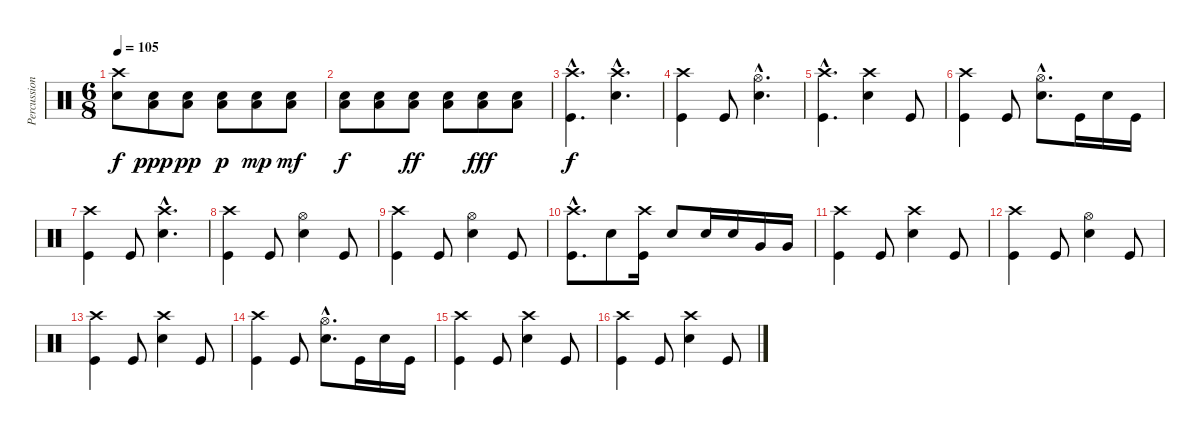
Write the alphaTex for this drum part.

\track ("Percussion" "Percussion") {instrument percussion}
\staff {score}
\articulation defaults
\ts (6 8)
\tempo 105
\clef neutral
\ks c
("Crash high (hit)" "Electric Snare (hit)").8{dy f} ("Low Floor Tom (hit)" "Electric Snare (hit)").8{dy ppp} ("Low Floor Tom (hit)" "Electric Snare (hit)").8{dy pp} ("Low Floor Tom (hit)" "Electric Snare (hit)").8{dy p} ("Low Floor Tom (hit)" "Electric Snare (hit)").8{dy mp} ("Low Floor Tom (hit)" "Electric Snare (hit)").8{dy mf} |
("Low Floor Tom (hit)" "Electric Snare (hit)").8{dy f} ("Low Floor Tom (hit)" "Electric Snare (hit)").8 ("Low Floor Tom (hit)" "Electric Snare (hit)").8{dy ff} ("Low Floor Tom (hit)" "Electric Snare (hit)").8 ("Low Floor Tom (hit)" "Electric Snare (hit)").8{dy fff} ("Low Floor Tom (hit)" "Electric Snare (hit)").8 |
("Crash high (hit)"{hac} "Kick (hit)"{hac}).4{d dy f} ("Crash high (hit)"{hac} "Electric Snare (hit)"{hac}).4{d} |
("Crash high (hit)" "Kick (hit)").4 "Kick (hit)".8 ("Hi-Hat (open)"{hac} "Electric Snare (hit)"{hac}).4{d} |
("Crash high (hit)"{hac} "Kick (hit)"{hac}).4{d} ("Crash high (hit)" "Electric Snare (hit)").4 "Kick (hit)".8 |
("Crash high (hit)" "Kick (hit)").4 "Kick (hit)".8 ("Hi-Hat (open)"{hac} "Electric Snare (hit)"{hac}).8{d} "Kick (hit)".16 "Electric Snare (hit)".16 "Kick (hit)".16 |
("Crash high (hit)" "Kick (hit)").4 "Kick (hit)".8 ("Crash high (hit)"{hac} "Electric Snare (hit)"{hac}).4{d} |
("Crash high (hit)" "Kick (hit)").4 "Kick (hit)".8 ("Hi-Hat (open)" "Electric Snare (hit)").4 "Kick (hit)".8 |
("Crash high (hit)" "Kick (hit)").4 "Kick (hit)".8 ("Hi-Hat (open)" "Electric Snare (hit)").4 "Kick (hit)".8 |
("Crash high (hit)"{hac} "Kick (hit)"{hac}).8{d} "Electric Snare (hit)".8 ("Crash high (hit)" "Kick (hit)").16 "Electric Snare (hit)".8 "Electric Snare (hit)".16 "Electric Snare (hit)".16 "Very Low Tom (hit)".16 "Very Low Tom (hit)".16 |
("Crash high (hit)" "Kick (hit)").4 "Kick (hit)".8 ("Crash high (hit)" "Electric Snare (hit)").4 "Kick (hit)".8 |
("Crash high (hit)" "Kick (hit)").4 "Kick (hit)".8 ("Hi-Hat (open)" "Electric Snare (hit)").4 "Kick (hit)".8 |
("Crash high (hit)" "Kick (hit)").4 "Kick (hit)".8 ("Crash high (hit)" "Electric Snare (hit)").4 "Kick (hit)".8 |
("Crash high (hit)" "Kick (hit)").4 "Kick (hit)".8 ("Hi-Hat (open)"{hac} "Electric Snare (hit)"{hac}).8{d} "Kick (hit)".16 "Electric Snare (hit)".16 "Kick (hit)".16 |
("Crash high (hit)" "Kick (hit)").4 "Kick (hit)".8 ("Crash high (hit)" "Electric Snare (hit)").4 "Kick (hit)".8 |
("Crash high (hit)" "Kick (hit)").4 "Kick (hit)".8 ("Crash high (hit)" "Electric Snare (hit)").4 "Kick (hit)".8
